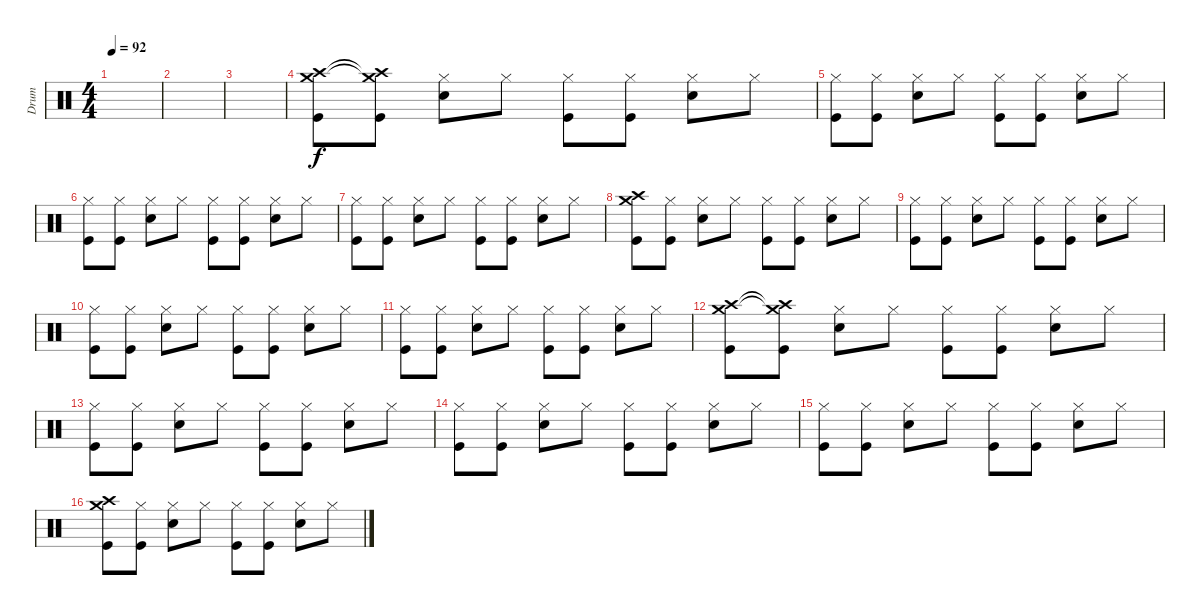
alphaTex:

\track ("Drum" "Drum") {instrument percussion}
\staff {score}
\articulation defaults
\ts (4 4)
\tempo 92
\clef neutral
\ks c
|
|
|
("Crash high (hit)" "Crash medium (hit)" "Kick (hit)").8 ("Crash high (hit)"{t} "Crash medium (hit)"{t} "Kick (hit)").8 ("Hi-Hat (closed)" "Snare (hit) 2").8 "Hi-Hat (closed)".8 ("Hi-Hat (closed)" "Kick (hit)").8 ("Hi-Hat (closed)" "Kick (hit)").8 ("Hi-Hat (closed)" "Snare (hit) 2").8 "Hi-Hat (closed)".8 |
("Hi-Hat (closed)" "Kick (hit)").8 ("Hi-Hat (closed)" "Kick (hit)").8 ("Hi-Hat (closed)" "Snare (hit) 2").8 "Hi-Hat (closed)".8 ("Hi-Hat (closed)" "Kick (hit)").8 ("Hi-Hat (closed)" "Kick (hit)").8 ("Hi-Hat (closed)" "Snare (hit) 2").8 "Hi-Hat (closed)".8 |
("Hi-Hat (closed)" "Kick (hit)").8 ("Hi-Hat (closed)" "Kick (hit)").8 ("Hi-Hat (closed)" "Snare (hit) 2").8 "Hi-Hat (closed)".8 ("Hi-Hat (closed)" "Kick (hit)").8 ("Hi-Hat (closed)" "Kick (hit)").8 ("Hi-Hat (closed)" "Snare (hit) 2").8 "Hi-Hat (closed)".8 |
("Hi-Hat (closed)" "Kick (hit)").8 ("Hi-Hat (closed)" "Kick (hit)").8 ("Hi-Hat (closed)" "Snare (hit) 2").8 "Hi-Hat (closed)".8 ("Hi-Hat (closed)" "Kick (hit)").8 ("Hi-Hat (closed)" "Kick (hit)").8 ("Hi-Hat (closed)" "Snare (hit) 2").8 "Hi-Hat (closed)".8 |
("Crash high (hit)" "Crash medium (hit)" "Kick (hit)").8 ("Hi-Hat (closed)" "Kick (hit)").8 ("Hi-Hat (closed)" "Snare (hit) 2").8 "Hi-Hat (closed)".8 ("Hi-Hat (closed)" "Kick (hit)").8 ("Hi-Hat (closed)" "Kick (hit)").8 ("Hi-Hat (closed)" "Snare (hit) 2").8 "Hi-Hat (closed)".8 |
("Hi-Hat (closed)" "Kick (hit)").8 ("Hi-Hat (closed)" "Kick (hit)").8 ("Hi-Hat (closed)" "Snare (hit) 2").8 "Hi-Hat (closed)".8 ("Hi-Hat (closed)" "Kick (hit)").8 ("Hi-Hat (closed)" "Kick (hit)").8 ("Hi-Hat (closed)" "Snare (hit) 2").8 "Hi-Hat (closed)".8 |
("Hi-Hat (closed)" "Kick (hit)").8 ("Hi-Hat (closed)" "Kick (hit)").8 ("Hi-Hat (closed)" "Snare (hit) 2").8 "Hi-Hat (closed)".8 ("Hi-Hat (closed)" "Kick (hit)").8 ("Hi-Hat (closed)" "Kick (hit)").8 ("Hi-Hat (closed)" "Snare (hit) 2").8 "Hi-Hat (closed)".8 |
("Hi-Hat (closed)" "Kick (hit)").8 ("Hi-Hat (closed)" "Kick (hit)").8 ("Hi-Hat (closed)" "Snare (hit) 2").8 "Hi-Hat (closed)".8 ("Hi-Hat (closed)" "Kick (hit)").8 ("Hi-Hat (closed)" "Kick (hit)").8 ("Hi-Hat (closed)" "Snare (hit) 2").8 "Hi-Hat (closed)".8 |
("Crash high (hit)" "Crash medium (hit)" "Kick (hit)").8 ("Crash high (hit)"{t} "Crash medium (hit)"{t} "Kick (hit)").8 ("Hi-Hat (closed)" "Snare (hit) 2").8 "Hi-Hat (closed)".8 ("Hi-Hat (closed)" "Kick (hit)").8 ("Hi-Hat (closed)" "Kick (hit)").8 ("Hi-Hat (closed)" "Snare (hit) 2").8 "Hi-Hat (closed)".8 |
("Hi-Hat (closed)" "Kick (hit)").8 ("Hi-Hat (closed)" "Kick (hit)").8 ("Hi-Hat (closed)" "Snare (hit) 2").8 "Hi-Hat (closed)".8 ("Hi-Hat (closed)" "Kick (hit)").8 ("Hi-Hat (closed)" "Kick (hit)").8 ("Hi-Hat (closed)" "Snare (hit) 2").8 "Hi-Hat (closed)".8 |
("Hi-Hat (closed)" "Kick (hit)").8 ("Hi-Hat (closed)" "Kick (hit)").8 ("Hi-Hat (closed)" "Snare (hit) 2").8 "Hi-Hat (closed)".8 ("Hi-Hat (closed)" "Kick (hit)").8 ("Hi-Hat (closed)" "Kick (hit)").8 ("Hi-Hat (closed)" "Snare (hit) 2").8 "Hi-Hat (closed)".8 |
("Hi-Hat (closed)" "Kick (hit)").8 ("Hi-Hat (closed)" "Kick (hit)").8 ("Hi-Hat (closed)" "Snare (hit) 2").8 "Hi-Hat (closed)".8 ("Hi-Hat (closed)" "Kick (hit)").8 ("Hi-Hat (closed)" "Kick (hit)").8 ("Hi-Hat (closed)" "Snare (hit) 2").8 "Hi-Hat (closed)".8 |
("Crash high (hit)" "Crash medium (hit)" "Kick (hit)").8 ("Hi-Hat (closed)" "Kick (hit)").8 ("Hi-Hat (closed)" "Snare (hit) 2").8 "Hi-Hat (closed)".8 ("Hi-Hat (closed)" "Kick (hit)").8 ("Hi-Hat (closed)" "Kick (hit)").8 ("Hi-Hat (closed)" "Snare (hit) 2").8 "Hi-Hat (closed)".8
